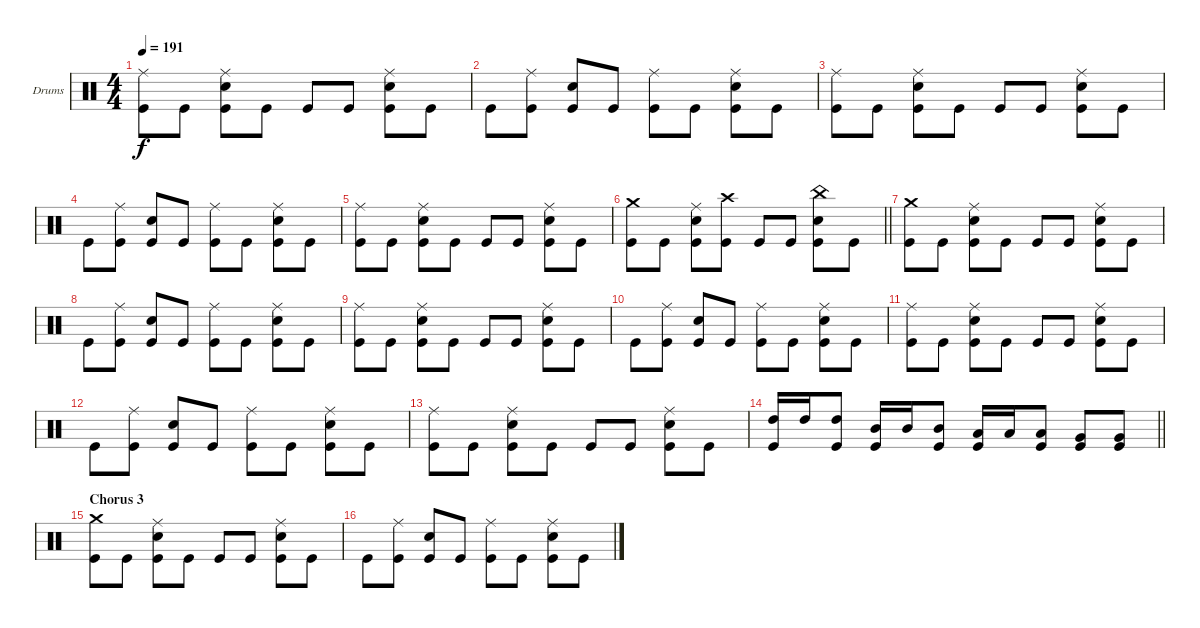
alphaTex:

\bracketExtendMode groupsimilarinstruments
\firstSystemTrackNameOrientation horizontal
\otherSystemsTrackNameOrientation horizontal
\track ("Drumkit" "Drums") {instrument percussion}
\staff {score}
\articulation defaults
\ts (4 4)
\tempo 191
\clef neutral
\ks c
("Ride (middle)" "Kick (hit)").8{dy f} "Kick (hit)".8 ("Ride (middle)" "Snare (hit) 2" "Kick (hit)").8 "Kick (hit)".8 "Kick (hit)".8 "Kick (hit)".8 ("Ride (middle)" "Snare (hit) 2" "Kick (hit)").8 "Kick (hit)".8 |
"Kick (hit)".8 ("Ride (middle)" "Kick (hit)").8 ("Snare (hit) 2" "Kick (hit)").8 "Kick (hit)".8 ("Ride (middle)" "Kick (hit)").8 "Kick (hit)".8 ("Ride (middle)" "Snare (hit) 2" "Kick (hit)").8 "Kick (hit)".8 |
("Ride (middle)" "Kick (hit)").8 "Kick (hit)".8 ("Ride (middle)" "Snare (hit) 2" "Kick (hit)").8 "Kick (hit)".8 "Kick (hit)".8 "Kick (hit)".8 ("Ride (middle)" "Snare (hit) 2" "Kick (hit)").8 "Kick (hit)".8 |
"Kick (hit)".8 ("Ride (middle)" "Kick (hit)").8 ("Snare (hit) 2" "Kick (hit)").8 "Kick (hit)".8 ("Ride (middle)" "Kick (hit)").8 "Kick (hit)".8 ("Ride (middle)" "Snare (hit) 2" "Kick (hit)").8 "Kick (hit)".8 |
("Ride (middle)" "Kick (hit)").8 "Kick (hit)".8 ("Ride (middle)" "Snare (hit) 2" "Kick (hit)").8 "Kick (hit)".8 "Kick (hit)".8 "Kick (hit)".8 ("Ride (middle)" "Snare (hit) 2" "Kick (hit)").8 "Kick (hit)".8 |
\barLineRight lightlight
("Crash medium (hit)" "Kick (hit)").8 "Kick (hit)".8 ("Ride (middle)" "Snare (hit) 2" "Kick (hit)").8 ("Crash high (hit)" "Kick (hit)").8 "Kick (hit)".8 "Kick (hit)".8 ("China (hit)" "Snare (hit) 2" "Kick (hit)").8 "Kick (hit)".8 |
\section ("" "")
("Crash medium (hit)" "Kick (hit)").8 "Kick (hit)".8 ("Ride (middle)" "Snare (hit) 2" "Kick (hit)").8 "Kick (hit)".8 "Kick (hit)".8 "Kick (hit)".8 ("Ride (middle)" "Snare (hit) 2" "Kick (hit)").8 "Kick (hit)".8 |
"Kick (hit)".8 ("Ride (middle)" "Kick (hit)").8 ("Snare (hit) 2" "Kick (hit)").8 "Kick (hit)".8 ("Ride (middle)" "Kick (hit)").8 "Kick (hit)".8 ("Ride (middle)" "Snare (hit) 2" "Kick (hit)").8 "Kick (hit)".8 |
("Ride (middle)" "Kick (hit)").8 "Kick (hit)".8 ("Ride (middle)" "Snare (hit) 2" "Kick (hit)").8 "Kick (hit)".8 "Kick (hit)".8 "Kick (hit)".8 ("Ride (middle)" "Snare (hit) 2" "Kick (hit)").8 "Kick (hit)".8 |
"Kick (hit)".8 ("Ride (middle)" "Kick (hit)").8 ("Snare (hit) 2" "Kick (hit)").8 "Kick (hit)".8 ("Ride (middle)" "Kick (hit)").8 "Kick (hit)".8 ("Ride (middle)" "Snare (hit) 2" "Kick (hit)").8 "Kick (hit)".8 |
("Ride (middle)" "Kick (hit)").8 "Kick (hit)".8 ("Ride (middle)" "Snare (hit) 2" "Kick (hit)").8 "Kick (hit)".8 "Kick (hit)".8 "Kick (hit)".8 ("Ride (middle)" "Snare (hit) 2" "Kick (hit)").8 "Kick (hit)".8 |
"Kick (hit)".8 ("Ride (middle)" "Kick (hit)").8 ("Snare (hit) 2" "Kick (hit)").8 "Kick (hit)".8 ("Ride (middle)" "Kick (hit)").8 "Kick (hit)".8 ("Ride (middle)" "Snare (hit) 2" "Kick (hit)").8 "Kick (hit)".8 |
("Ride (middle)" "Kick (hit)").8 "Kick (hit)".8 ("Ride (middle)" "Snare (hit) 2" "Kick (hit)").8 "Kick (hit)".8 "Kick (hit)".8 "Kick (hit)".8 ("Ride (middle)" "Snare (hit) 2" "Kick (hit)").8 "Kick (hit)".8 |
\barLineRight lightlight
("High Tom (hit)" "Kick (hit)").16 "High Tom (hit)".16 ("High Tom (hit)" "Kick (hit)").8 ("Mid Tom (hit)" "Kick (hit)").16 "Mid Tom (hit)".16 ("Mid Tom (hit)" "Kick (hit)").8 ("Low Tom (hit)" "Kick (hit)").16 "Low Tom (hit)".16 ("Low Tom (hit)" "Kick (hit)").8 ("Very Low Tom (hit)" "Kick (hit)").8 ("Very Low Tom (hit)" "Kick (hit)").8 |
\section ("" "Chorus 3")
("Crash medium (hit)" "Kick (hit)").8 "Kick (hit)".8 ("Ride (middle)" "Snare (hit) 2" "Kick (hit)").8 "Kick (hit)".8 "Kick (hit)".8 "Kick (hit)".8 ("Ride (middle)" "Snare (hit) 2" "Kick (hit)").8 "Kick (hit)".8 |
"Kick (hit)".8 ("Ride (middle)" "Kick (hit)").8 ("Snare (hit) 2" "Kick (hit)").8 "Kick (hit)".8 ("Ride (middle)" "Kick (hit)").8 "Kick (hit)".8 ("Ride (middle)" "Snare (hit) 2" "Kick (hit)").8 "Kick (hit)".8
